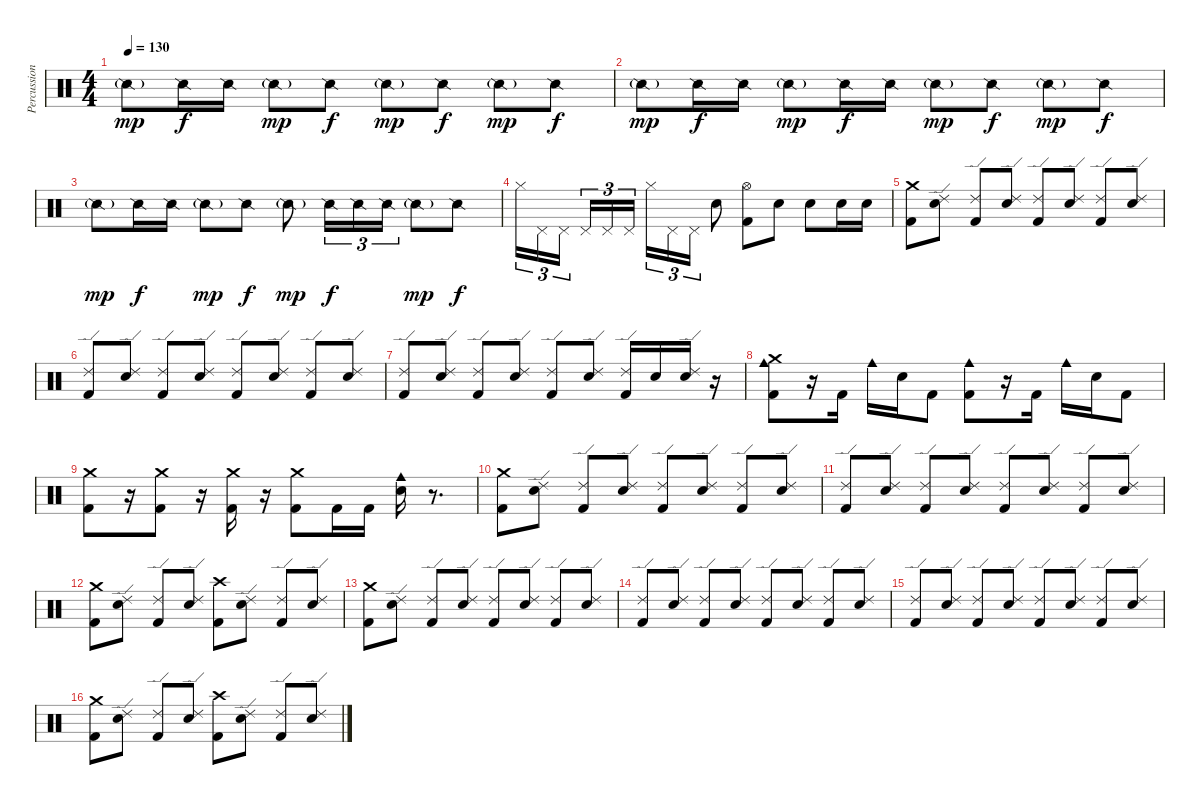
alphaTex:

\track ("Percussion" "Percussion") {instrument percussion}
\staff {score}
\articulation defaults
\ts (4 4)
\tempo 130
\clef neutral
\ks c "Snare (side stick) 2"{g}.8{dy mp} "Snare (side stick) 2".16{dy f} "Snare (side stick) 2".16 "Snare (side stick) 2"{g}.8{dy mp} "Snare (side stick) 2".8{dy f} "Snare (side stick) 2"{g}.8{dy mp} "Snare (side stick) 2".8{dy f} "Snare (side stick) 2"{g}.8{dy mp} "Snare (side stick) 2".8{dy f}
|
"Snare (side stick) 2"{g}.8{dy mp} "Snare (side stick) 2".16{dy f} "Snare (side stick) 2".16 "Snare (side stick) 2"{g}.8{dy mp} "Snare (side stick) 2".16{dy f} "Snare (side stick) 2".16 "Snare (side stick) 2"{g}.8{dy mp} "Snare (side stick) 2".8{dy f} "Snare (side stick) 2"{g}.8{dy mp} "Snare (side stick) 2".8{dy f} |
"Snare (side stick) 2"{g}.8{dy mp} "Snare (side stick) 2".16{dy f} "Snare (side stick) 2".16 "Snare (side stick) 2"{g}.8{dy mp} "Snare (side stick) 2".8{dy f} "Snare (side stick) 2"{g}.8{dy mp} "Snare (side stick) 2".16{tu (3 2) dy f} "Snare (side stick) 2".16{tu (3 2)} "Snare (side stick) 2".16{tu (3 2)} "Snare (side stick) 2"{g}.8{dy mp} "Snare (side stick) 2".8{dy f} |
"Hi-Hat (closed)".16{tu (3 2)} "Pedal Hi-Hat (hit)".16{tu (3 2)} "Pedal Hi-Hat (hit)".16{tu (3 2)} "Pedal Hi-Hat (hit)".16{tu (3 2)} "Pedal Hi-Hat (hit)".16{tu (3 2)} "Pedal Hi-Hat (hit)".16{tu (3 2)} "Hi-Hat (closed)".16{tu (3 2)} "Pedal Hi-Hat (hit)".16{tu (3 2)} "Pedal Hi-Hat (hit)".16{tu (3 2)} "Electric Snare (hit)".8 ("Hi-Hat (open)" "Kick (hit) 2").8 "Electric Snare (hit)".8 "Electric Snare (hit)".8 "Electric Snare (hit)".16 "Electric Snare (hit)".16 |
("Crash medium (hit)" "Kick (hit) 2").8 ("Ride (edge) 2" "Electric Snare (hit)").8 ("Ride (edge) 2" "Kick (hit) 2").8 ("Ride (edge) 2" "Electric Snare (hit)").8 ("Ride (edge) 2" "Kick (hit) 2").8 ("Ride (edge) 2" "Electric Snare (hit)").8 ("Ride (edge) 2" "Kick (hit) 2").8 ("Ride (edge) 2" "Electric Snare (hit)").8 |
("Ride (edge) 2" "Kick (hit) 2").8 ("Ride (edge) 2" "Electric Snare (hit)").8 ("Ride (edge) 2" "Kick (hit) 2").8 ("Ride (edge) 2" "Electric Snare (hit)").8 ("Ride (edge) 2" "Kick (hit) 2").8 ("Ride (edge) 2" "Electric Snare (hit)").8 ("Ride (edge) 2" "Kick (hit) 2").8 ("Ride (edge) 2" "Electric Snare (hit)").8 |
("Ride (edge) 2" "Kick (hit) 2").8 ("Ride (edge) 2" "Electric Snare (hit)").8 ("Ride (edge) 2" "Kick (hit) 2").8 ("Ride (edge) 2" "Electric Snare (hit)").8 ("Ride (edge) 2" "Kick (hit) 2").8 ("Ride (edge) 2" "Electric Snare (hit)").8 ("Ride (edge) 2" "Kick (hit) 2").16 "Electric Snare (hit)".16 ("Ride (edge) 2" "Electric Snare (hit)").16 r.16 |
("Crash medium (hit)" "Cowbell medium (hit)" "Kick (hit) 2").8 r.16 "Kick (hit) 2".16 "Cowbell medium (hit)".16 "Electric Snare (hit)".16 "Kick (hit) 2".8 ("Cowbell medium (hit)" "Kick (hit) 2").8 r.16 "Kick (hit) 2".16 "Cowbell medium (hit)".16 "Electric Snare (hit)".16 "Kick (hit) 2".8 |
("Crash medium (hit)" "Kick (hit) 2").8 r.16 ("Crash medium (hit)" "Kick (hit) 2").8 r.16 ("Crash medium (hit)" "Kick (hit) 2").16 r.16 ("Crash medium (hit)" "Kick (hit) 2").8 "Kick (hit) 2".16 "Kick (hit) 2".16 ("Cowbell medium (hit)" "Electric Snare (hit)").16 r.8{d} |
("Crash medium (hit)" "Kick (hit) 2").8 ("Ride (edge) 2" "Electric Snare (hit)").8 ("Ride (edge) 2" "Kick (hit) 2").8 ("Ride (edge) 2" "Electric Snare (hit)").8 ("Ride (edge) 2" "Kick (hit) 2").8 ("Ride (edge) 2" "Electric Snare (hit)").8 ("Ride (edge) 2" "Kick (hit) 2").8 ("Ride (edge) 2" "Electric Snare (hit)").8 |
("Ride (edge) 2" "Kick (hit) 2").8 ("Ride (edge) 2" "Electric Snare (hit)").8 ("Ride (edge) 2" "Kick (hit) 2").8 ("Ride (edge) 2" "Electric Snare (hit)").8 ("Ride (edge) 2" "Kick (hit) 2").8 ("Ride (edge) 2" "Electric Snare (hit)").8 ("Ride (edge) 2" "Kick (hit) 2").8 ("Ride (edge) 2" "Electric Snare (hit)").8 |
("Crash medium (hit)" "Kick (hit) 2").8 ("Ride (edge) 2" "Electric Snare (hit)").8 ("Ride (edge) 2" "Kick (hit) 2").8 ("Ride (edge) 2" "Electric Snare (hit)").8 ("Crash high (hit)" "Kick (hit) 2").8 ("Ride (edge) 2" "Electric Snare (hit)").8 ("Ride (edge) 2" "Kick (hit) 2").8 ("Ride (edge) 2" "Electric Snare (hit)").8 |
("Crash medium (hit)" "Kick (hit) 2").8 ("Ride (edge) 2" "Electric Snare (hit)").8 ("Ride (edge) 2" "Kick (hit) 2").8 ("Ride (edge) 2" "Electric Snare (hit)").8 ("Ride (edge) 2" "Kick (hit) 2").8 ("Ride (edge) 2" "Electric Snare (hit)").8 ("Ride (edge) 2" "Kick (hit) 2").8 ("Ride (edge) 2" "Electric Snare (hit)").8 |
("Ride (edge) 2" "Kick (hit) 2").8 ("Ride (edge) 2" "Electric Snare (hit)").8 ("Ride (edge) 2" "Kick (hit) 2").8 ("Ride (edge) 2" "Electric Snare (hit)").8 ("Ride (edge) 2" "Kick (hit) 2").8 ("Ride (edge) 2" "Electric Snare (hit)").8 ("Ride (edge) 2" "Kick (hit) 2").8 ("Ride (edge) 2" "Electric Snare (hit)").8 |
("Ride (edge) 2" "Kick (hit) 2").8 ("Ride (edge) 2" "Electric Snare (hit)").8 ("Ride (edge) 2" "Kick (hit) 2").8 ("Ride (edge) 2" "Electric Snare (hit)").8 ("Ride (edge) 2" "Kick (hit) 2").8 ("Ride (edge) 2" "Electric Snare (hit)").8 ("Ride (edge) 2" "Kick (hit) 2").8 ("Ride (edge) 2" "Electric Snare (hit)").8 |
("Crash medium (hit)" "Kick (hit) 2").8 ("Ride (edge) 2" "Electric Snare (hit)").8 ("Ride (edge) 2" "Kick (hit) 2").8 ("Ride (edge) 2" "Electric Snare (hit)").8 ("Crash high (hit)" "Kick (hit) 2").8 ("Ride (edge) 2" "Electric Snare (hit)").8 ("Ride (edge) 2" "Kick (hit) 2").8 ("Ride (edge) 2" "Electric Snare (hit)").8
